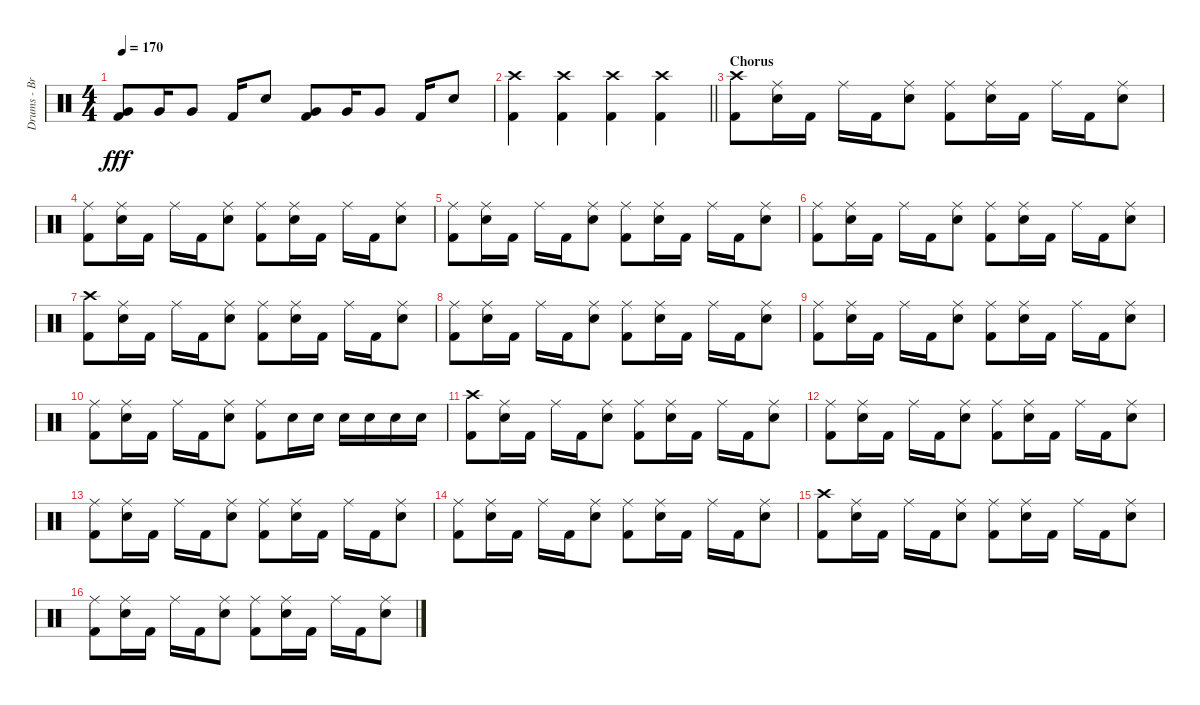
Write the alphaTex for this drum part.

\track ("Drums - Brandon" "Drums - Br") {instrument percussion}
\staff {score}
\articulation defaults
\ts (4 4)
\tempo 170
\clef neutral
\ks c
("Very Low Tom (hit)" "Kick (hit) 2").8{dy fff} "Very Low Tom (hit)".16 "Very Low Tom (hit)".8 "Kick (hit) 2".16 "Electric Snare (hit)".8 ("Very Low Tom (hit)" "Kick (hit) 2").8 "Very Low Tom (hit)".16 "Very Low Tom (hit)".8 "Kick (hit) 2".16 "Electric Snare (hit)".8 |
\barLineRight lightlight
("Crash high (hit)" "Kick (hit) 2").4 ("Crash high (hit)" "Kick (hit) 2").4 ("Crash high (hit)" "Kick (hit) 2").4 ("Crash high (hit)" "Kick (hit) 2").4 |
\section ("" "Chorus")
("Crash high (hit)" "Kick (hit) 2").8 ("Ride (middle)" "Electric Snare (hit)").16 "Kick (hit) 2".16 "Ride (middle)".16 "Kick (hit) 2".16 ("Ride (middle)" "Electric Snare (hit)").8 ("Ride (middle)" "Kick (hit) 2").8 ("Ride (middle)" "Electric Snare (hit)").16 "Kick (hit) 2".16 "Ride (middle)".16 "Kick (hit) 2".16 ("Ride (middle)" "Electric Snare (hit)").8 |
("Ride (middle)" "Kick (hit) 2").8 ("Ride (middle)" "Electric Snare (hit)").16 "Kick (hit) 2".16 "Ride (middle)".16 "Kick (hit) 2".16 ("Ride (middle)" "Electric Snare (hit)").8 ("Ride (middle)" "Kick (hit) 2").8 ("Ride (middle)" "Electric Snare (hit)").16 "Kick (hit) 2".16 "Ride (middle)".16 "Kick (hit) 2".16 ("Ride (middle)" "Electric Snare (hit)").8 |
("Ride (middle)" "Kick (hit) 2").8 ("Ride (middle)" "Electric Snare (hit)").16 "Kick (hit) 2".16 "Ride (middle)".16 "Kick (hit) 2".16 ("Ride (middle)" "Electric Snare (hit)").8 ("Ride (middle)" "Kick (hit) 2").8 ("Ride (middle)" "Electric Snare (hit)").16 "Kick (hit) 2".16 "Ride (middle)".16 "Kick (hit) 2".16 ("Ride (middle)" "Electric Snare (hit)").8 |
("Ride (middle)" "Kick (hit) 2").8 ("Ride (middle)" "Electric Snare (hit)").16 "Kick (hit) 2".16 "Ride (middle)".16 "Kick (hit) 2".16 ("Ride (middle)" "Electric Snare (hit)").8 ("Ride (middle)" "Kick (hit) 2").8 ("Ride (middle)" "Electric Snare (hit)").16 "Kick (hit) 2".16 "Ride (middle)".16 "Kick (hit) 2".16 ("Ride (middle)" "Electric Snare (hit)").8 |
("Crash high (hit)" "Kick (hit) 2").8 ("Ride (middle)" "Electric Snare (hit)").16 "Kick (hit) 2".16 "Ride (middle)".16 "Kick (hit) 2".16 ("Ride (middle)" "Electric Snare (hit)").8 ("Ride (middle)" "Kick (hit) 2").8 ("Ride (middle)" "Electric Snare (hit)").16 "Kick (hit) 2".16 "Ride (middle)".16 "Kick (hit) 2".16 ("Ride (middle)" "Electric Snare (hit)").8 |
("Ride (middle)" "Kick (hit) 2").8 ("Ride (middle)" "Electric Snare (hit)").16 "Kick (hit) 2".16 "Ride (middle)".16 "Kick (hit) 2".16 ("Ride (middle)" "Electric Snare (hit)").8 ("Ride (middle)" "Kick (hit) 2").8 ("Ride (middle)" "Electric Snare (hit)").16 "Kick (hit) 2".16 "Ride (middle)".16 "Kick (hit) 2".16 ("Ride (middle)" "Electric Snare (hit)").8 |
("Ride (middle)" "Kick (hit) 2").8 ("Ride (middle)" "Electric Snare (hit)").16 "Kick (hit) 2".16 "Ride (middle)".16 "Kick (hit) 2".16 ("Ride (middle)" "Electric Snare (hit)").8 ("Ride (middle)" "Kick (hit) 2").8 ("Ride (middle)" "Electric Snare (hit)").16 "Kick (hit) 2".16 "Ride (middle)".16 "Kick (hit) 2".16 ("Ride (middle)" "Electric Snare (hit)").8 |
("Ride (middle)" "Kick (hit) 2").8 ("Ride (middle)" "Electric Snare (hit)").16 "Kick (hit) 2".16 "Ride (middle)".16 "Kick (hit) 2".16 ("Ride (middle)" "Electric Snare (hit)").8 ("Ride (middle)" "Kick (hit) 2").8 "Electric Snare (hit)".16 "Electric Snare (hit)".16 "Electric Snare (hit)".16 "Electric Snare (hit)".16 "Electric Snare (hit)".16 "Electric Snare (hit)".16 |
("Crash high (hit)" "Kick (hit) 2").8 ("Ride (middle)" "Electric Snare (hit)").16 "Kick (hit) 2".16 "Ride (middle)".16 "Kick (hit) 2".16 ("Ride (middle)" "Electric Snare (hit)").8 ("Ride (middle)" "Kick (hit) 2").8 ("Ride (middle)" "Electric Snare (hit)").16 "Kick (hit) 2".16 "Ride (middle)".16 "Kick (hit) 2".16 ("Ride (middle)" "Electric Snare (hit)").8 |
("Ride (middle)" "Kick (hit) 2").8 ("Ride (middle)" "Electric Snare (hit)").16 "Kick (hit) 2".16 "Ride (middle)".16 "Kick (hit) 2".16 ("Ride (middle)" "Electric Snare (hit)").8 ("Ride (middle)" "Kick (hit) 2").8 ("Ride (middle)" "Electric Snare (hit)").16 "Kick (hit) 2".16 "Ride (middle)".16 "Kick (hit) 2".16 ("Ride (middle)" "Electric Snare (hit)").8 |
("Ride (middle)" "Kick (hit) 2").8 ("Ride (middle)" "Electric Snare (hit)").16 "Kick (hit) 2".16 "Ride (middle)".16 "Kick (hit) 2".16 ("Ride (middle)" "Electric Snare (hit)").8 ("Ride (middle)" "Kick (hit) 2").8 ("Ride (middle)" "Electric Snare (hit)").16 "Kick (hit) 2".16 "Ride (middle)".16 "Kick (hit) 2".16 ("Ride (middle)" "Electric Snare (hit)").8 |
("Ride (middle)" "Kick (hit) 2").8 ("Ride (middle)" "Electric Snare (hit)").16 "Kick (hit) 2".16 "Ride (middle)".16 "Kick (hit) 2".16 ("Ride (middle)" "Electric Snare (hit)").8 ("Ride (middle)" "Kick (hit) 2").8 ("Ride (middle)" "Electric Snare (hit)").16 "Kick (hit) 2".16 "Ride (middle)".16 "Kick (hit) 2".16 ("Ride (middle)" "Electric Snare (hit)").8 |
("Crash high (hit)" "Kick (hit) 2").8 ("Ride (middle)" "Electric Snare (hit)").16 "Kick (hit) 2".16 "Ride (middle)".16 "Kick (hit) 2".16 ("Ride (middle)" "Electric Snare (hit)").8 ("Ride (middle)" "Kick (hit) 2").8 ("Ride (middle)" "Electric Snare (hit)").16 "Kick (hit) 2".16 "Ride (middle)".16 "Kick (hit) 2".16 ("Ride (middle)" "Electric Snare (hit)").8 |
("Ride (middle)" "Kick (hit) 2").8 ("Ride (middle)" "Electric Snare (hit)").16 "Kick (hit) 2".16 "Ride (middle)".16 "Kick (hit) 2".16 ("Ride (middle)" "Electric Snare (hit)").8 ("Ride (middle)" "Kick (hit) 2").8 ("Ride (middle)" "Electric Snare (hit)").16 "Kick (hit) 2".16 "Ride (middle)".16 "Kick (hit) 2".16 ("Ride (middle)" "Electric Snare (hit)").8
